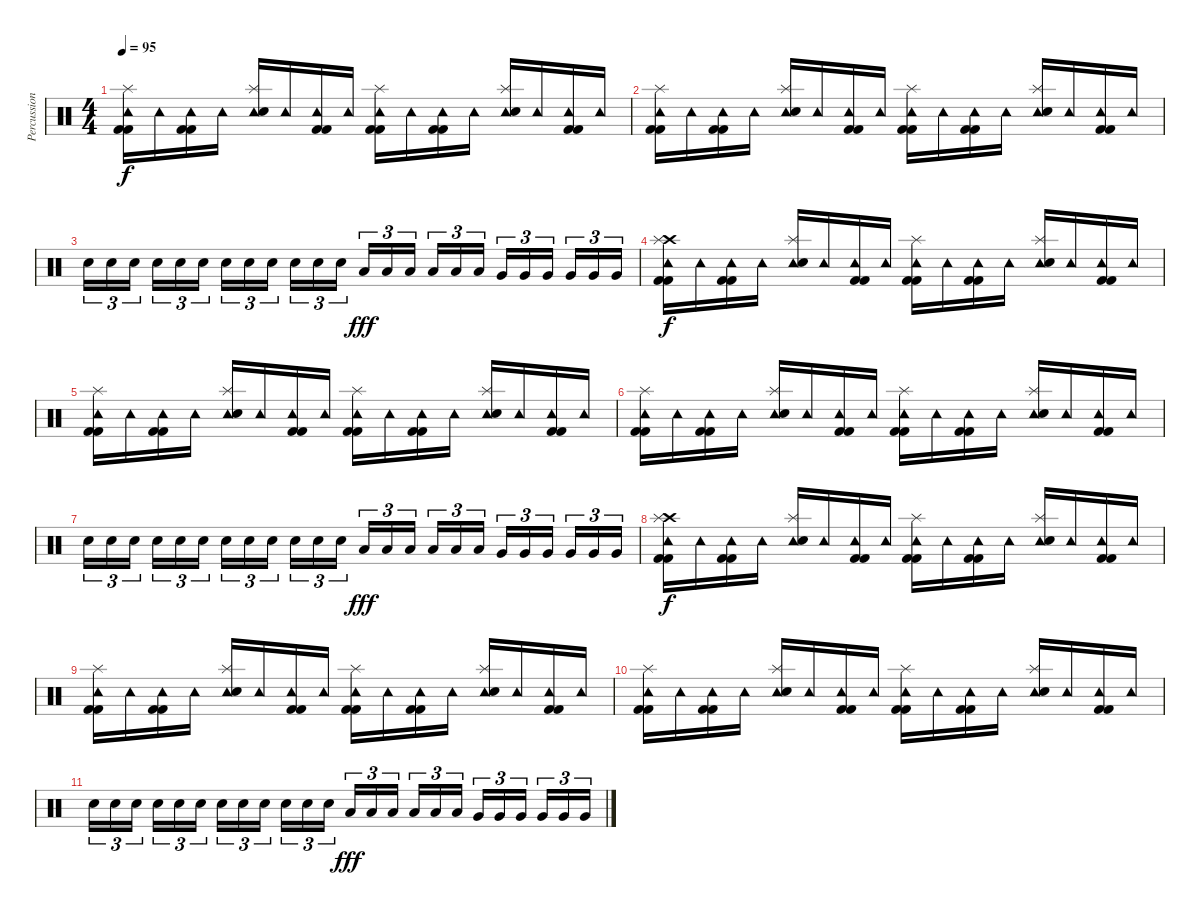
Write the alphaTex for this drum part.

\track ("Percussion" "Percussion") {instrument percussion}
\staff {score}
\articulation defaults
\ts (4 4)
\tempo 95
\clef neutral
\ks c
("Tambourine (hit)" "Kick (hit) 2" "Kick (hit) 2" "Splash (hit)").16{dy f} "Tambourine (hit)".16 ("Tambourine (hit)" "Kick (hit) 2" "Kick (hit) 2").16 "Tambourine (hit)".16 ("Tambourine (hit)" "Electric Snare (hit)" "Splash (hit)").16 "Tambourine (hit)".16 ("Tambourine (hit)" "Kick (hit) 2" "Kick (hit) 2").16 "Tambourine (hit)".16 ("Tambourine (hit)" "Kick (hit) 2" "Kick (hit) 2" "Splash (hit)").16 "Tambourine (hit)".16 ("Tambourine (hit)" "Kick (hit) 2" "Kick (hit) 2").16 "Tambourine (hit)".16 ("Tambourine (hit)" "Electric Snare (hit)" "Splash (hit)").16 "Tambourine (hit)".16 ("Tambourine (hit)" "Kick (hit) 2" "Kick (hit) 2").16 "Tambourine (hit)".16 |
("Tambourine (hit)" "Kick (hit) 2" "Kick (hit) 2" "Splash (hit)").16 "Tambourine (hit)".16 ("Tambourine (hit)" "Kick (hit) 2" "Kick (hit) 2").16 "Tambourine (hit)".16 ("Tambourine (hit)" "Electric Snare (hit)" "Splash (hit)").16 "Tambourine (hit)".16 ("Tambourine (hit)" "Kick (hit) 2" "Kick (hit) 2").16 "Tambourine (hit)".16 ("Tambourine (hit)" "Kick (hit) 2" "Kick (hit) 2" "Splash (hit)").16 "Tambourine (hit)".16 ("Tambourine (hit)" "Kick (hit) 2" "Kick (hit) 2").16 "Tambourine (hit)".16 ("Tambourine (hit)" "Electric Snare (hit)" "Splash (hit)").16 "Tambourine (hit)".16 ("Tambourine (hit)" "Kick (hit) 2" "Kick (hit) 2").16 "Tambourine (hit)".16 |
"Electric Snare (hit)".16{tu (3 2)} "Electric Snare (hit)".16{tu (3 2)} "Electric Snare (hit)".16{tu (3 2)} "Electric Snare (hit)".16{tu (3 2)} "Electric Snare (hit)".16{tu (3 2)} "Electric Snare (hit)".16{tu (3 2)} "Snare (hit) 2".16{tu (3 2)} "Snare (hit) 2".16{tu (3 2)} "Snare (hit) 2".16{tu (3 2)} "Snare (hit) 2".16{tu (3 2)} "Snare (hit) 2".16{tu (3 2)} "Snare (hit) 2".16{tu (3 2)} "Low Tom (hit)".16{tu (3 2) dy fff} "Low Tom (hit)".16{tu (3 2)} "Low Tom (hit)".16{tu (3 2)} "Low Tom (hit)".16{tu (3 2)} "Low Tom (hit)".16{tu (3 2)} "Low Tom (hit)".16{tu (3 2)} "Very Low Tom (hit)".16{tu (3 2)} "Very Low Tom (hit)".16{tu (3 2)} "Very Low Tom (hit)".16{tu (3 2)} "Very Low Tom (hit)".16{tu (3 2)} "Very Low Tom (hit)".16{tu (3 2)} "Very Low Tom (hit)".16{tu (3 2)} |
("Tambourine (hit)" "Crash high (hit)" "Kick (hit) 2" "Kick (hit) 2" "Splash (hit)").16{dy f volume 9} "Tambourine (hit)".16 ("Tambourine (hit)" "Kick (hit) 2" "Kick (hit) 2").16 "Tambourine (hit)".16 ("Tambourine (hit)" "Electric Snare (hit)" "Splash (hit)").16 "Tambourine (hit)".16 ("Tambourine (hit)" "Kick (hit) 2" "Kick (hit) 2").16 "Tambourine (hit)".16 ("Tambourine (hit)" "Kick (hit) 2" "Kick (hit) 2" "Splash (hit)").16 "Tambourine (hit)".16 ("Tambourine (hit)" "Kick (hit) 2" "Kick (hit) 2").16 "Tambourine (hit)".16 ("Tambourine (hit)" "Electric Snare (hit)" "Splash (hit)").16 "Tambourine (hit)".16 ("Tambourine (hit)" "Kick (hit) 2" "Kick (hit) 2").16 "Tambourine (hit)".16 |
("Tambourine (hit)" "Kick (hit) 2" "Kick (hit) 2" "Splash (hit)").16{volume 8} "Tambourine (hit)".16 ("Tambourine (hit)" "Kick (hit) 2" "Kick (hit) 2").16 "Tambourine (hit)".16 ("Tambourine (hit)" "Electric Snare (hit)" "Splash (hit)").16 "Tambourine (hit)".16 ("Tambourine (hit)" "Kick (hit) 2" "Kick (hit) 2").16 "Tambourine (hit)".16 ("Tambourine (hit)" "Kick (hit) 2" "Kick (hit) 2" "Splash (hit)").16 "Tambourine (hit)".16 ("Tambourine (hit)" "Kick (hit) 2" "Kick (hit) 2").16 "Tambourine (hit)".16 ("Tambourine (hit)" "Electric Snare (hit)" "Splash (hit)").16 "Tambourine (hit)".16 ("Tambourine (hit)" "Kick (hit) 2" "Kick (hit) 2").16 "Tambourine (hit)".16 |
("Tambourine (hit)" "Kick (hit) 2" "Kick (hit) 2" "Splash (hit)").16{volume 7} "Tambourine (hit)".16 ("Tambourine (hit)" "Kick (hit) 2" "Kick (hit) 2").16 "Tambourine (hit)".16 ("Tambourine (hit)" "Electric Snare (hit)" "Splash (hit)").16 "Tambourine (hit)".16 ("Tambourine (hit)" "Kick (hit) 2" "Kick (hit) 2").16 "Tambourine (hit)".16 ("Tambourine (hit)" "Kick (hit) 2" "Kick (hit) 2" "Splash (hit)").16 "Tambourine (hit)".16 ("Tambourine (hit)" "Kick (hit) 2" "Kick (hit) 2").16 "Tambourine (hit)".16 ("Tambourine (hit)" "Electric Snare (hit)" "Splash (hit)").16 "Tambourine (hit)".16 ("Tambourine (hit)" "Kick (hit) 2" "Kick (hit) 2").16 "Tambourine (hit)".16 |
"Electric Snare (hit)".16{tu (3 2) volume 6} "Electric Snare (hit)".16{tu (3 2)} "Electric Snare (hit)".16{tu (3 2)} "Electric Snare (hit)".16{tu (3 2)} "Electric Snare (hit)".16{tu (3 2)} "Electric Snare (hit)".16{tu (3 2)} "Snare (hit) 2".16{tu (3 2)} "Snare (hit) 2".16{tu (3 2)} "Snare (hit) 2".16{tu (3 2)} "Snare (hit) 2".16{tu (3 2)} "Snare (hit) 2".16{tu (3 2)} "Snare (hit) 2".16{tu (3 2)} "Low Tom (hit)".16{tu (3 2) dy fff} "Low Tom (hit)".16{tu (3 2)} "Low Tom (hit)".16{tu (3 2)} "Low Tom (hit)".16{tu (3 2)} "Low Tom (hit)".16{tu (3 2)} "Low Tom (hit)".16{tu (3 2)} "Very Low Tom (hit)".16{tu (3 2)} "Very Low Tom (hit)".16{tu (3 2)} "Very Low Tom (hit)".16{tu (3 2)} "Very Low Tom (hit)".16{tu (3 2)} "Very Low Tom (hit)".16{tu (3 2)} "Very Low Tom (hit)".16{tu (3 2)} |
("Tambourine (hit)" "Crash high (hit)" "Kick (hit) 2" "Kick (hit) 2" "Splash (hit)").16{dy f volume 5} "Tambourine (hit)".16 ("Tambourine (hit)" "Kick (hit) 2" "Kick (hit) 2").16 "Tambourine (hit)".16 ("Tambourine (hit)" "Electric Snare (hit)" "Splash (hit)").16 "Tambourine (hit)".16 ("Tambourine (hit)" "Kick (hit) 2" "Kick (hit) 2").16 "Tambourine (hit)".16 ("Tambourine (hit)" "Kick (hit) 2" "Kick (hit) 2" "Splash (hit)").16 "Tambourine (hit)".16 ("Tambourine (hit)" "Kick (hit) 2" "Kick (hit) 2").16 "Tambourine (hit)".16 ("Tambourine (hit)" "Electric Snare (hit)" "Splash (hit)").16 "Tambourine (hit)".16 ("Tambourine (hit)" "Kick (hit) 2" "Kick (hit) 2").16 "Tambourine (hit)".16 |
("Tambourine (hit)" "Kick (hit) 2" "Kick (hit) 2" "Splash (hit)").16{volume 4} "Tambourine (hit)".16 ("Tambourine (hit)" "Kick (hit) 2" "Kick (hit) 2").16 "Tambourine (hit)".16 ("Tambourine (hit)" "Electric Snare (hit)" "Splash (hit)").16 "Tambourine (hit)".16 ("Tambourine (hit)" "Kick (hit) 2" "Kick (hit) 2").16 "Tambourine (hit)".16 ("Tambourine (hit)" "Kick (hit) 2" "Kick (hit) 2" "Splash (hit)").16 "Tambourine (hit)".16 ("Tambourine (hit)" "Kick (hit) 2" "Kick (hit) 2").16 "Tambourine (hit)".16 ("Tambourine (hit)" "Electric Snare (hit)" "Splash (hit)").16 "Tambourine (hit)".16 ("Tambourine (hit)" "Kick (hit) 2" "Kick (hit) 2").16 "Tambourine (hit)".16 |
("Tambourine (hit)" "Kick (hit) 2" "Kick (hit) 2" "Splash (hit)").16{volume 3} "Tambourine (hit)".16 ("Tambourine (hit)" "Kick (hit) 2" "Kick (hit) 2").16 "Tambourine (hit)".16 ("Tambourine (hit)" "Electric Snare (hit)" "Splash (hit)").16 "Tambourine (hit)".16 ("Tambourine (hit)" "Kick (hit) 2" "Kick (hit) 2").16 "Tambourine (hit)".16 ("Tambourine (hit)" "Kick (hit) 2" "Kick (hit) 2" "Splash (hit)").16 "Tambourine (hit)".16{volume 2} ("Tambourine (hit)" "Kick (hit) 2" "Kick (hit) 2").16 "Tambourine (hit)".16 ("Tambourine (hit)" "Electric Snare (hit)" "Splash (hit)").16 "Tambourine (hit)".16 ("Tambourine (hit)" "Kick (hit) 2" "Kick (hit) 2").16 "Tambourine (hit)".16 |
"Electric Snare (hit)".16{tu (3 2) volume 1} "Electric Snare (hit)".16{tu (3 2)} "Electric Snare (hit)".16{tu (3 2)} "Electric Snare (hit)".16{tu (3 2)} "Electric Snare (hit)".16{tu (3 2)} "Electric Snare (hit)".16{tu (3 2)} "Snare (hit) 2".16{tu (3 2)} "Snare (hit) 2".16{tu (3 2)} "Snare (hit) 2".16{tu (3 2)} "Snare (hit) 2".16{tu (3 2)} "Snare (hit) 2".16{tu (3 2)} "Snare (hit) 2".16{tu (3 2) volume 0} "Low Tom (hit)".16{tu (3 2) dy fff} "Low Tom (hit)".16{tu (3 2)} "Low Tom (hit)".16{tu (3 2)} "Low Tom (hit)".16{tu (3 2)} "Low Tom (hit)".16{tu (3 2)} "Low Tom (hit)".16{tu (3 2)} "Very Low Tom (hit)".16{tu (3 2)} "Very Low Tom (hit)".16{tu (3 2)} "Very Low Tom (hit)".16{tu (3 2)} "Very Low Tom (hit)".16{tu (3 2)} "Very Low Tom (hit)".16{tu (3 2)} "Very Low Tom (hit)".16{tu (3 2)}
